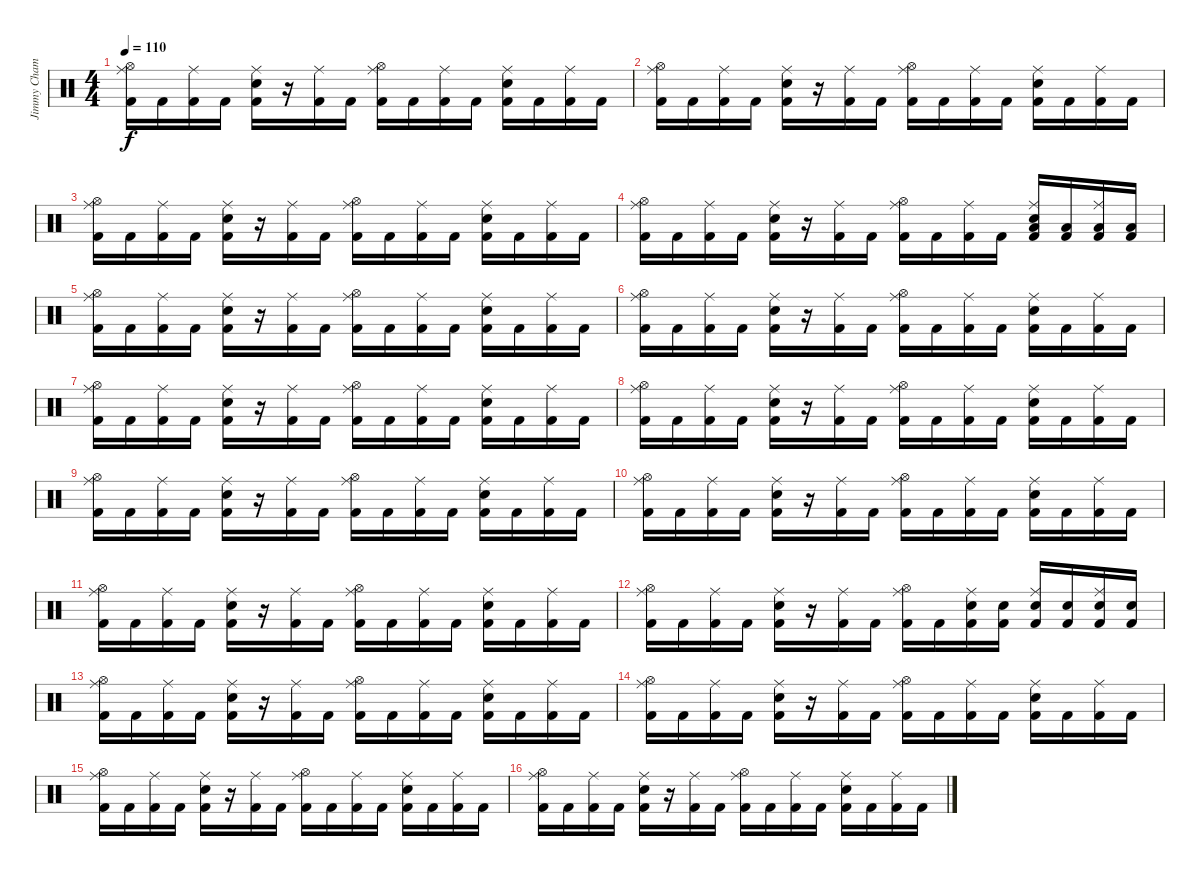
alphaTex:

\track ("Jimmy Chamberlin" "Jimmy Cham") {instrument percussion}
\staff {score}
\articulation defaults
\ts (4 4)
\tempo 110
\clef neutral
\ks c
("Kick (hit) 2" "Hi-Hat (open)" "Ride (middle)").16{dy f} "Kick (hit) 2".16 ("Kick (hit) 2" "Ride (middle)").16 "Kick (hit) 2".16 ("Kick (hit) 2" "Snare (hit) 2" "Ride (middle)").16 r.16 ("Kick (hit) 2" "Ride (middle)").16 "Kick (hit) 2".16 ("Kick (hit) 2" "Hi-Hat (open)" "Ride (middle)").16 "Kick (hit) 2".16 ("Kick (hit) 2" "Ride (middle)").16 "Kick (hit) 2".16 ("Kick (hit) 2" "Snare (hit) 2" "Ride (middle)").16 "Kick (hit) 2".16 ("Kick (hit) 2" "Ride (middle)").16 "Kick (hit) 2".16 |
("Kick (hit) 2" "Hi-Hat (open)" "Ride (middle)").16 "Kick (hit) 2".16 ("Kick (hit) 2" "Ride (middle)").16 "Kick (hit) 2".16 ("Kick (hit) 2" "Snare (hit) 2" "Ride (middle)").16 r.16 ("Kick (hit) 2" "Ride (middle)").16 "Kick (hit) 2".16 ("Kick (hit) 2" "Hi-Hat (open)" "Ride (middle)").16 "Kick (hit) 2".16 ("Kick (hit) 2" "Ride (middle)").16 "Kick (hit) 2".16 ("Kick (hit) 2" "Snare (hit) 2" "Ride (middle)").16 "Kick (hit) 2".16 ("Kick (hit) 2" "Ride (middle)").16 "Kick (hit) 2".16 |
("Kick (hit) 2" "Hi-Hat (open)" "Ride (middle)").16 "Kick (hit) 2".16 ("Kick (hit) 2" "Ride (middle)").16 "Kick (hit) 2".16 ("Kick (hit) 2" "Snare (hit) 2" "Ride (middle)").16 r.16 ("Kick (hit) 2" "Ride (middle)").16 "Kick (hit) 2".16 ("Kick (hit) 2" "Hi-Hat (open)" "Ride (middle)").16 "Kick (hit) 2".16 ("Kick (hit) 2" "Ride (middle)").16 "Kick (hit) 2".16 ("Kick (hit) 2" "Snare (hit) 2" "Ride (middle)").16 "Kick (hit) 2".16 ("Kick (hit) 2" "Ride (middle)").16 "Kick (hit) 2".16 |
("Kick (hit) 2" "Hi-Hat (open)" "Ride (middle)").16 "Kick (hit) 2".16 ("Kick (hit) 2" "Ride (middle)").16 "Kick (hit) 2".16 ("Kick (hit) 2" "Snare (hit) 2" "Ride (middle)").16 r.16 ("Kick (hit) 2" "Ride (middle)").16 "Kick (hit) 2".16 ("Kick (hit) 2" "Hi-Hat (open)" "Ride (middle)").16 "Kick (hit) 2".16 ("Kick (hit) 2" "Ride (middle)").16 "Kick (hit) 2".16 ("Kick (hit) 2" "Snare (hit) 2" "Ride (middle)" "Low Floor Tom (hit)").16 ("Kick (hit) 2" "Low Floor Tom (hit)").16 ("Kick (hit) 2" "Ride (middle)" "Low Floor Tom (hit)").16 ("Kick (hit) 2" "Low Floor Tom (hit)").16 |
("Kick (hit) 2" "Hi-Hat (open)" "Ride (middle)").16 "Kick (hit) 2".16 ("Kick (hit) 2" "Ride (middle)").16 "Kick (hit) 2".16 ("Kick (hit) 2" "Snare (hit) 2" "Ride (middle)").16 r.16 ("Kick (hit) 2" "Ride (middle)").16 "Kick (hit) 2".16 ("Kick (hit) 2" "Hi-Hat (open)" "Ride (middle)").16 "Kick (hit) 2".16 ("Kick (hit) 2" "Ride (middle)").16 "Kick (hit) 2".16 ("Kick (hit) 2" "Snare (hit) 2" "Ride (middle)").16 "Kick (hit) 2".16 ("Kick (hit) 2" "Ride (middle)").16 "Kick (hit) 2".16 |
("Kick (hit) 2" "Hi-Hat (open)" "Ride (middle)").16 "Kick (hit) 2".16 ("Kick (hit) 2" "Ride (middle)").16 "Kick (hit) 2".16 ("Kick (hit) 2" "Snare (hit) 2" "Ride (middle)").16 r.16 ("Kick (hit) 2" "Ride (middle)").16 "Kick (hit) 2".16 ("Kick (hit) 2" "Hi-Hat (open)" "Ride (middle)").16 "Kick (hit) 2".16 ("Kick (hit) 2" "Ride (middle)").16 "Kick (hit) 2".16 ("Kick (hit) 2" "Snare (hit) 2" "Ride (middle)").16 "Kick (hit) 2".16 ("Kick (hit) 2" "Ride (middle)").16 "Kick (hit) 2".16 |
("Kick (hit) 2" "Hi-Hat (open)" "Ride (middle)").16 "Kick (hit) 2".16 ("Kick (hit) 2" "Ride (middle)").16 "Kick (hit) 2".16 ("Kick (hit) 2" "Snare (hit) 2" "Ride (middle)").16 r.16 ("Kick (hit) 2" "Ride (middle)").16 "Kick (hit) 2".16 ("Kick (hit) 2" "Hi-Hat (open)" "Ride (middle)").16 "Kick (hit) 2".16 ("Kick (hit) 2" "Ride (middle)").16 "Kick (hit) 2".16 ("Kick (hit) 2" "Snare (hit) 2" "Ride (middle)").16 "Kick (hit) 2".16 ("Kick (hit) 2" "Ride (middle)").16 "Kick (hit) 2".16 |
("Kick (hit) 2" "Hi-Hat (open)" "Ride (middle)").16 "Kick (hit) 2".16 ("Kick (hit) 2" "Ride (middle)").16 "Kick (hit) 2".16 ("Kick (hit) 2" "Snare (hit) 2" "Ride (middle)").16 r.16 ("Kick (hit) 2" "Ride (middle)").16 "Kick (hit) 2".16 ("Kick (hit) 2" "Hi-Hat (open)" "Ride (middle)").16 "Kick (hit) 2".16 ("Kick (hit) 2" "Ride (middle)").16 "Kick (hit) 2".16 ("Kick (hit) 2" "Snare (hit) 2" "Ride (middle)").16 "Kick (hit) 2".16 ("Kick (hit) 2" "Ride (middle)").16 "Kick (hit) 2".16 |
("Kick (hit) 2" "Hi-Hat (open)" "Ride (middle)").16 "Kick (hit) 2".16 ("Kick (hit) 2" "Ride (middle)").16 "Kick (hit) 2".16 ("Kick (hit) 2" "Snare (hit) 2" "Ride (middle)").16 r.16 ("Kick (hit) 2" "Ride (middle)").16 "Kick (hit) 2".16 ("Kick (hit) 2" "Hi-Hat (open)" "Ride (middle)").16 "Kick (hit) 2".16 ("Kick (hit) 2" "Ride (middle)").16 "Kick (hit) 2".16 ("Kick (hit) 2" "Snare (hit) 2" "Ride (middle)").16 "Kick (hit) 2".16 ("Kick (hit) 2" "Ride (middle)").16 "Kick (hit) 2".16 |
("Kick (hit) 2" "Hi-Hat (open)" "Ride (middle)").16 "Kick (hit) 2".16 ("Kick (hit) 2" "Ride (middle)").16 "Kick (hit) 2".16 ("Kick (hit) 2" "Snare (hit) 2" "Ride (middle)").16 r.16 ("Kick (hit) 2" "Ride (middle)").16 "Kick (hit) 2".16 ("Kick (hit) 2" "Hi-Hat (open)" "Ride (middle)").16 "Kick (hit) 2".16 ("Kick (hit) 2" "Ride (middle)").16 "Kick (hit) 2".16 ("Kick (hit) 2" "Snare (hit) 2" "Ride (middle)").16 "Kick (hit) 2".16 ("Kick (hit) 2" "Ride (middle)").16 "Kick (hit) 2".16 |
("Kick (hit) 2" "Hi-Hat (open)" "Ride (middle)").16 "Kick (hit) 2".16 ("Kick (hit) 2" "Ride (middle)").16 "Kick (hit) 2".16 ("Kick (hit) 2" "Snare (hit) 2" "Ride (middle)").16 r.16 ("Kick (hit) 2" "Ride (middle)").16 "Kick (hit) 2".16 ("Kick (hit) 2" "Hi-Hat (open)" "Ride (middle)").16 "Kick (hit) 2".16 ("Kick (hit) 2" "Ride (middle)").16 "Kick (hit) 2".16 ("Kick (hit) 2" "Snare (hit) 2" "Ride (middle)").16 "Kick (hit) 2".16 ("Kick (hit) 2" "Ride (middle)").16 "Kick (hit) 2".16 |
("Kick (hit) 2" "Hi-Hat (open)" "Ride (middle)").16 "Kick (hit) 2".16 ("Kick (hit) 2" "Ride (middle)").16 "Kick (hit) 2".16 ("Kick (hit) 2" "Snare (hit) 2" "Ride (middle)").16 r.16 ("Kick (hit) 2" "Ride (middle)").16 "Kick (hit) 2".16 ("Kick (hit) 2" "Hi-Hat (open)" "Ride (middle)").16 "Kick (hit) 2".16 ("Kick (hit) 2" "Snare (hit) 2" "Ride (middle)").16 ("Kick (hit) 2" "Snare (hit) 2").16 ("Kick (hit) 2" "Snare (hit) 2" "Ride (middle)").16 ("Kick (hit) 2" "Snare (hit) 2").16 ("Kick (hit) 2" "Snare (hit) 2" "Ride (middle)").16 ("Kick (hit) 2" "Snare (hit) 2").16 |
("Kick (hit) 2" "Hi-Hat (open)" "Ride (middle)").16 "Kick (hit) 2".16 ("Kick (hit) 2" "Ride (middle)").16 "Kick (hit) 2".16 ("Kick (hit) 2" "Snare (hit) 2" "Ride (middle)").16 r.16 ("Kick (hit) 2" "Ride (middle)").16 "Kick (hit) 2".16 ("Kick (hit) 2" "Hi-Hat (open)" "Ride (middle)").16 "Kick (hit) 2".16 ("Kick (hit) 2" "Ride (middle)").16 "Kick (hit) 2".16 ("Kick (hit) 2" "Snare (hit) 2" "Ride (middle)").16 "Kick (hit) 2".16 ("Kick (hit) 2" "Ride (middle)").16 "Kick (hit) 2".16 |
("Kick (hit) 2" "Hi-Hat (open)" "Ride (middle)").16 "Kick (hit) 2".16 ("Kick (hit) 2" "Ride (middle)").16 "Kick (hit) 2".16 ("Kick (hit) 2" "Snare (hit) 2" "Ride (middle)").16 r.16 ("Kick (hit) 2" "Ride (middle)").16 "Kick (hit) 2".16 ("Kick (hit) 2" "Hi-Hat (open)" "Ride (middle)").16 "Kick (hit) 2".16 ("Kick (hit) 2" "Ride (middle)").16 "Kick (hit) 2".16 ("Kick (hit) 2" "Snare (hit) 2" "Ride (middle)").16 "Kick (hit) 2".16 ("Kick (hit) 2" "Ride (middle)").16 "Kick (hit) 2".16 |
("Kick (hit) 2" "Hi-Hat (open)" "Ride (middle)").16 "Kick (hit) 2".16 ("Kick (hit) 2" "Ride (middle)").16 "Kick (hit) 2".16 ("Kick (hit) 2" "Snare (hit) 2" "Ride (middle)").16 r.16 ("Kick (hit) 2" "Ride (middle)").16 "Kick (hit) 2".16 ("Kick (hit) 2" "Hi-Hat (open)" "Ride (middle)").16 "Kick (hit) 2".16 ("Kick (hit) 2" "Ride (middle)").16 "Kick (hit) 2".16 ("Kick (hit) 2" "Snare (hit) 2" "Ride (middle)").16 "Kick (hit) 2".16 ("Kick (hit) 2" "Ride (middle)").16 "Kick (hit) 2".16 |
("Kick (hit) 2" "Hi-Hat (open)" "Ride (middle)").16 "Kick (hit) 2".16 ("Kick (hit) 2" "Ride (middle)").16 "Kick (hit) 2".16 ("Kick (hit) 2" "Snare (hit) 2" "Ride (middle)").16 r.16 ("Kick (hit) 2" "Ride (middle)").16 "Kick (hit) 2".16 ("Kick (hit) 2" "Hi-Hat (open)" "Ride (middle)").16 "Kick (hit) 2".16 ("Kick (hit) 2" "Ride (middle)").16 "Kick (hit) 2".16 ("Kick (hit) 2" "Snare (hit) 2" "Ride (middle)").16 "Kick (hit) 2".16 ("Kick (hit) 2" "Ride (middle)").16 "Kick (hit) 2".16
